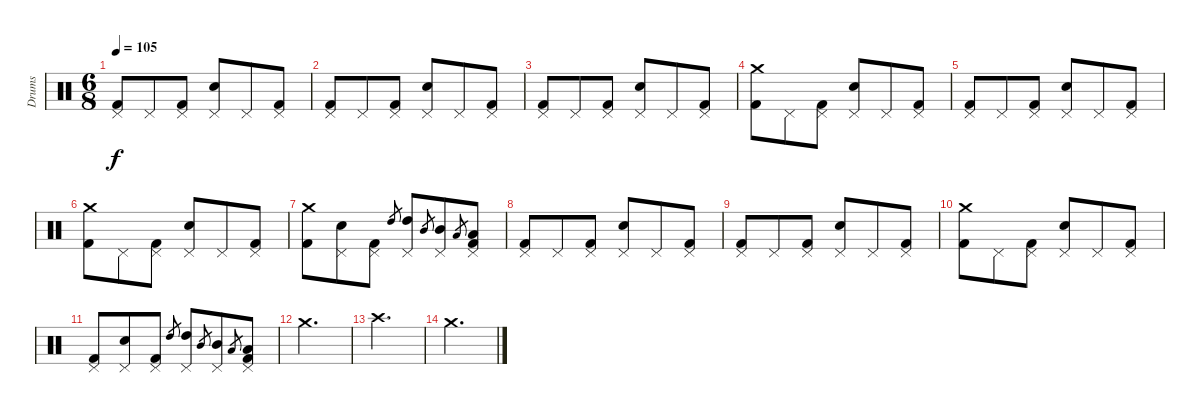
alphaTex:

\track ("Drums" "Drums") {instrument percussion}
\staff {score}
\articulation defaults
\ts (6 8)
\tempo 105
\clef neutral
\ks c
("Pedal Hi-Hat (hit)" "Kick (hit) 2").8{dy f} "Pedal Hi-Hat (hit)".8 ("Pedal Hi-Hat (hit)" "Kick (hit) 2").8 ("Pedal Hi-Hat (hit)" "Snare (hit) 2").8 "Pedal Hi-Hat (hit)".8 ("Pedal Hi-Hat (hit)" "Kick (hit) 2").8 |
("Pedal Hi-Hat (hit)" "Kick (hit) 2").8 "Pedal Hi-Hat (hit)".8 ("Pedal Hi-Hat (hit)" "Kick (hit) 2").8 ("Pedal Hi-Hat (hit)" "Snare (hit) 2").8 "Pedal Hi-Hat (hit)".8 ("Pedal Hi-Hat (hit)" "Kick (hit) 2").8 |
("Pedal Hi-Hat (hit)" "Kick (hit) 2").8 "Pedal Hi-Hat (hit)".8 ("Pedal Hi-Hat (hit)" "Kick (hit) 2").8 ("Pedal Hi-Hat (hit)" "Snare (hit) 2").8 "Pedal Hi-Hat (hit)".8 ("Pedal Hi-Hat (hit)" "Kick (hit) 2").8 |
("Crash medium (hit)" "Kick (hit) 2").8 "Pedal Hi-Hat (hit)".8 ("Pedal Hi-Hat (hit)" "Kick (hit) 2").8 ("Pedal Hi-Hat (hit)" "Snare (hit) 2").8 "Pedal Hi-Hat (hit)".8 ("Pedal Hi-Hat (hit)" "Kick (hit) 2").8 |
("Pedal Hi-Hat (hit)" "Kick (hit) 2").8 "Pedal Hi-Hat (hit)".8 ("Pedal Hi-Hat (hit)" "Kick (hit) 2").8 ("Pedal Hi-Hat (hit)" "Snare (hit) 2").8 "Pedal Hi-Hat (hit)".8 ("Pedal Hi-Hat (hit)" "Kick (hit) 2").8 |
("Crash medium (hit)" "Kick (hit) 2").8 "Pedal Hi-Hat (hit)".8 ("Pedal Hi-Hat (hit)" "Kick (hit) 2").8 ("Pedal Hi-Hat (hit)" "Snare (hit) 2").8 "Pedal Hi-Hat (hit)".8 ("Pedal Hi-Hat (hit)" "Kick (hit) 2").8 |
("Crash medium (hit)" "Kick (hit) 2").8 ("Pedal Hi-Hat (hit)" "Snare (hit) 2").8 ("Pedal Hi-Hat (hit)" "Kick (hit) 2").8 "High Tom (hit)".8{gr} ("Pedal Hi-Hat (hit)" "High Tom (hit)").8 "Mid Tom (hit)".8{gr} ("Pedal Hi-Hat (hit)" "Mid Tom (hit)").8 "Low Tom (hit)".8{gr} ("Pedal Hi-Hat (hit)" "Low Tom (hit)" "Kick (hit) 2").8 |
("Pedal Hi-Hat (hit)" "Kick (hit) 2").8 "Pedal Hi-Hat (hit)".8 ("Pedal Hi-Hat (hit)" "Kick (hit) 2").8 ("Pedal Hi-Hat (hit)" "Snare (hit) 2").8 "Pedal Hi-Hat (hit)".8 ("Pedal Hi-Hat (hit)" "Kick (hit) 2").8 |
("Pedal Hi-Hat (hit)" "Kick (hit) 2").8 "Pedal Hi-Hat (hit)".8 ("Pedal Hi-Hat (hit)" "Kick (hit) 2").8 ("Pedal Hi-Hat (hit)" "Snare (hit) 2").8 "Pedal Hi-Hat (hit)".8 ("Pedal Hi-Hat (hit)" "Kick (hit) 2").8 |
("Crash medium (hit)" "Kick (hit) 2").8 "Pedal Hi-Hat (hit)".8 ("Pedal Hi-Hat (hit)" "Kick (hit) 2").8 ("Pedal Hi-Hat (hit)" "Snare (hit) 2").8 "Pedal Hi-Hat (hit)".8 ("Pedal Hi-Hat (hit)" "Kick (hit) 2").8 |
("Pedal Hi-Hat (hit)" "Kick (hit) 2").8 ("Pedal Hi-Hat (hit)" "Snare (hit) 2").8 ("Pedal Hi-Hat (hit)" "Kick (hit) 2").8 "High Tom (hit)".8{gr} ("Pedal Hi-Hat (hit)" "High Tom (hit)").8 "Mid Tom (hit)".8{gr} ("Pedal Hi-Hat (hit)" "Mid Tom (hit)").8 "Low Tom (hit)".8{gr} ("Pedal Hi-Hat (hit)" "Low Tom (hit)" "Kick (hit) 2").8 |
"Crash medium (hit)".2{d} |
"Crash high (hit)".2{d} |
"Crash medium (hit)".2{d}
